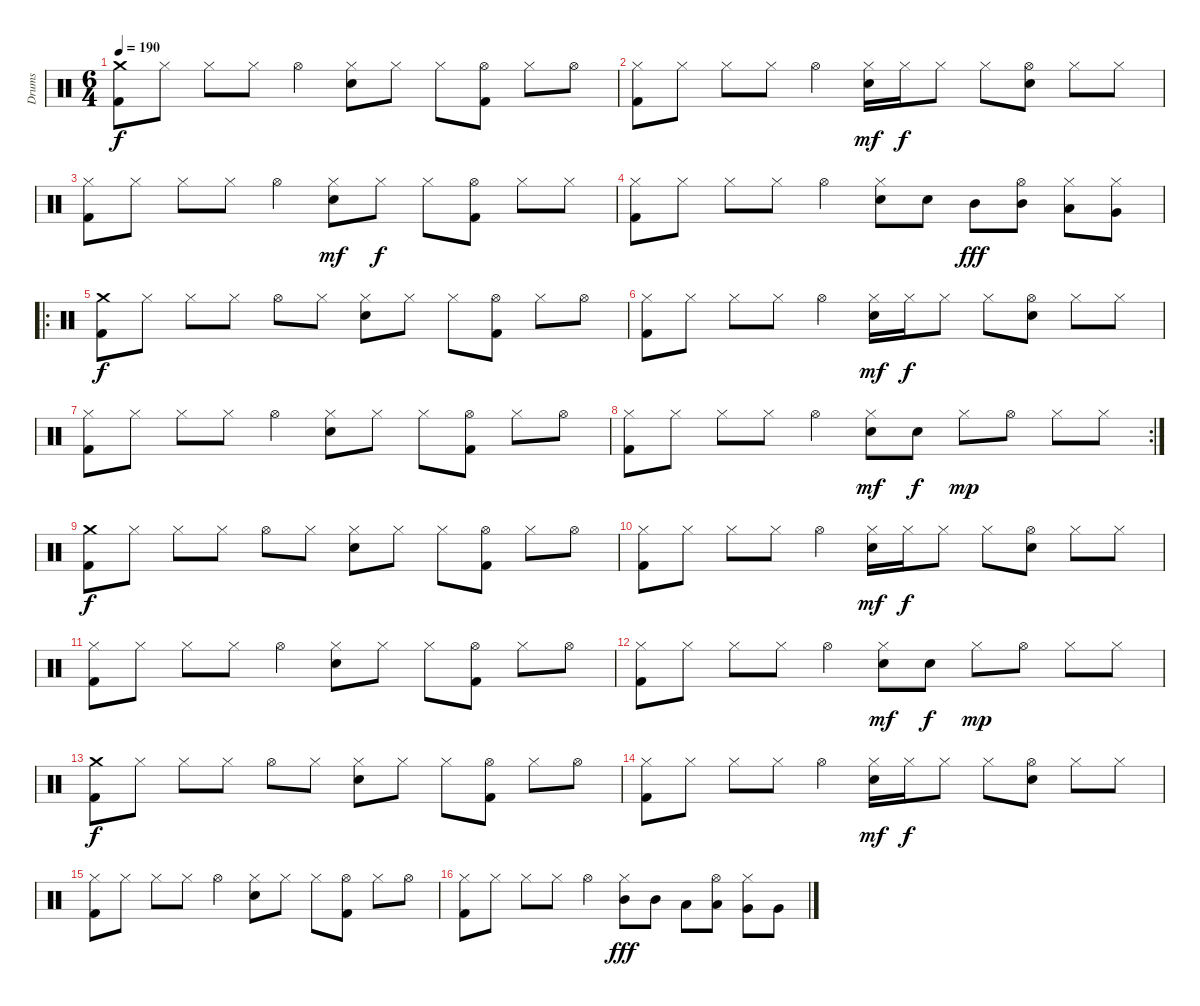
\track ("Drums" "Drums") {instrument percussion}
\staff {score}
\articulation defaults
\ts (6 4)
\tempo 190
\clef neutral
\ks c
("Crash medium (hit)" "Kick (hit) 2").8{dy f} "Hi-Hat (closed)".8 "Hi-Hat (closed)".8 "Hi-Hat (closed)".8 "Hi-Hat (open)".4 ("Hi-Hat (closed)" "Electric Snare (hit)").8 "Hi-Hat (closed)".8 "Hi-Hat (closed)".8 ("Hi-Hat (open)" "Kick (hit) 2").8 "Hi-Hat (closed)".8 "Hi-Hat (open)".8 |
("Hi-Hat (closed)" "Kick (hit) 2").8 "Hi-Hat (closed)".8 "Hi-Hat (closed)".8 "Hi-Hat (closed)".8 "Hi-Hat (open)".4 ("Hi-Hat (closed)" "Electric Snare (hit)").16{dy mf} "Hi-Hat (closed)".16{dy f} "Hi-Hat (closed)".8 "Hi-Hat (closed)".8 ("Hi-Hat (open)" "Electric Snare (hit)").8 "Hi-Hat (closed)".8 "Hi-Hat (closed)".8 |
("Hi-Hat (closed)" "Kick (hit) 2").8 "Hi-Hat (closed)".8 "Hi-Hat (closed)".8 "Hi-Hat (closed)".8 "Hi-Hat (open)".4 ("Hi-Hat (closed)" "Electric Snare (hit)").8{dy mf} "Hi-Hat (closed)".8{dy f} "Hi-Hat (closed)".8 ("Hi-Hat (open)" "Kick (hit) 2").8 "Hi-Hat (closed)".8 "Hi-Hat (closed)".8 |
("Hi-Hat (closed)" "Kick (hit) 2").8 "Hi-Hat (closed)".8 "Hi-Hat (closed)".8 "Hi-Hat (closed)".8 "Hi-Hat (open)".4 ("Hi-Hat (closed)" "Electric Snare (hit)").8 "Electric Snare (hit)".8 "Mid Tom (hit)".8{dy fff} ("Hi-Hat (open)" "Mid Tom (hit)").8 ("Hi-Hat (closed)" "Low Tom (hit)").8 ("Hi-Hat (closed)" "Very Low Tom (hit)").8 |
\ro
("Crash medium (hit)" "Kick (hit) 2").8{dy f} "Hi-Hat (closed)".8 "Hi-Hat (closed)".8 "Hi-Hat (closed)".8 "Hi-Hat (open)".8 "Hi-Hat (closed)".8 ("Hi-Hat (closed)" "Electric Snare (hit)").8 "Hi-Hat (closed)".8 "Hi-Hat (closed)".8 ("Hi-Hat (open)" "Kick (hit) 2").8 "Hi-Hat (closed)".8 "Hi-Hat (open)".8 |
("Hi-Hat (closed)" "Kick (hit) 2").8 "Hi-Hat (closed)".8 "Hi-Hat (closed)".8 "Hi-Hat (closed)".8 "Hi-Hat (open)".4 ("Hi-Hat (closed)" "Electric Snare (hit)").16{dy mf} "Hi-Hat (closed)".16{dy f} "Hi-Hat (closed)".8 "Hi-Hat (closed)".8 ("Hi-Hat (open)" "Electric Snare (hit)").8 "Hi-Hat (closed)".8 "Hi-Hat (closed)".8 |
("Hi-Hat (closed)" "Kick (hit) 2").8 "Hi-Hat (closed)".8 "Hi-Hat (closed)".8 "Hi-Hat (closed)".8 "Hi-Hat (open)".4 ("Hi-Hat (closed)" "Electric Snare (hit)").8 "Hi-Hat (closed)".8 "Hi-Hat (closed)".8 ("Hi-Hat (open)" "Kick (hit) 2").8 "Hi-Hat (closed)".8 "Hi-Hat (open)".8 |
\rc 2
("Hi-Hat (closed)" "Kick (hit) 2").8 "Hi-Hat (closed)".8 "Hi-Hat (closed)".8 "Hi-Hat (closed)".8 "Hi-Hat (open)".4 ("Hi-Hat (closed)" "Electric Snare (hit)").8{dy mf} "Electric Snare (hit)".8{dy f} "Hi-Hat (closed)".8{dy mp} "Hi-Hat (open)".8 "Hi-Hat (closed)".8 "Hi-Hat (closed)".8 |
("Crash medium (hit)" "Kick (hit) 2").8{dy f} "Hi-Hat (closed)".8 "Hi-Hat (closed)".8 "Hi-Hat (closed)".8 "Hi-Hat (open)".8 "Hi-Hat (closed)".8 ("Hi-Hat (closed)" "Electric Snare (hit)").8 "Hi-Hat (closed)".8 "Hi-Hat (closed)".8 ("Hi-Hat (open)" "Kick (hit) 2").8 "Hi-Hat (closed)".8 "Hi-Hat (open)".8 |
("Hi-Hat (closed)" "Kick (hit) 2").8 "Hi-Hat (closed)".8 "Hi-Hat (closed)".8 "Hi-Hat (closed)".8 "Hi-Hat (open)".4 ("Hi-Hat (closed)" "Electric Snare (hit)").16{dy mf} "Hi-Hat (closed)".16{dy f} "Hi-Hat (closed)".8 "Hi-Hat (closed)".8 ("Hi-Hat (open)" "Electric Snare (hit)").8 "Hi-Hat (closed)".8 "Hi-Hat (closed)".8 |
("Hi-Hat (closed)" "Kick (hit) 2").8 "Hi-Hat (closed)".8 "Hi-Hat (closed)".8 "Hi-Hat (closed)".8 "Hi-Hat (open)".4 ("Hi-Hat (closed)" "Electric Snare (hit)").8 "Hi-Hat (closed)".8 "Hi-Hat (closed)".8 ("Hi-Hat (open)" "Kick (hit) 2").8 "Hi-Hat (closed)".8 "Hi-Hat (open)".8 |
("Hi-Hat (closed)" "Kick (hit) 2").8 "Hi-Hat (closed)".8 "Hi-Hat (closed)".8 "Hi-Hat (closed)".8 "Hi-Hat (open)".4 ("Hi-Hat (closed)" "Electric Snare (hit)").8{dy mf} "Electric Snare (hit)".8{dy f} "Hi-Hat (closed)".8{dy mp} "Hi-Hat (open)".8 "Hi-Hat (closed)".8 "Hi-Hat (closed)".8 |
("Crash medium (hit)" "Kick (hit) 2").8{dy f} "Hi-Hat (closed)".8 "Hi-Hat (closed)".8 "Hi-Hat (closed)".8 "Hi-Hat (open)".8 "Hi-Hat (closed)".8 ("Hi-Hat (closed)" "Electric Snare (hit)").8 "Hi-Hat (closed)".8 "Hi-Hat (closed)".8 ("Hi-Hat (open)" "Kick (hit) 2").8 "Hi-Hat (closed)".8 "Hi-Hat (open)".8 |
("Hi-Hat (closed)" "Kick (hit) 2").8 "Hi-Hat (closed)".8 "Hi-Hat (closed)".8 "Hi-Hat (closed)".8 "Hi-Hat (open)".4 ("Hi-Hat (closed)" "Electric Snare (hit)").16{dy mf} "Hi-Hat (closed)".16{dy f} "Hi-Hat (closed)".8 "Hi-Hat (closed)".8 ("Hi-Hat (open)" "Electric Snare (hit)").8 "Hi-Hat (closed)".8 "Hi-Hat (closed)".8 |
("Hi-Hat (closed)" "Kick (hit) 2").8 "Hi-Hat (closed)".8 "Hi-Hat (closed)".8 "Hi-Hat (closed)".8 "Hi-Hat (open)".4 ("Hi-Hat (closed)" "Electric Snare (hit)").8 "Hi-Hat (closed)".8 "Hi-Hat (closed)".8 ("Hi-Hat (open)" "Kick (hit) 2").8 "Hi-Hat (closed)".8 "Hi-Hat (open)".8 |
("Hi-Hat (closed)" "Kick (hit) 2").8 "Hi-Hat (closed)".8 "Hi-Hat (closed)".8 "Hi-Hat (closed)".8 "Hi-Hat (open)".4 ("Hi-Hat (closed)" "Mid Tom (hit)").8{dy fff} "Mid Tom (hit)".8 "Low Tom (hit)".8 ("Hi-Hat (open)" "Low Tom (hit)").8 ("Hi-Hat (closed)" "Very Low Tom (hit)").8 "Very Low Tom (hit)".8
